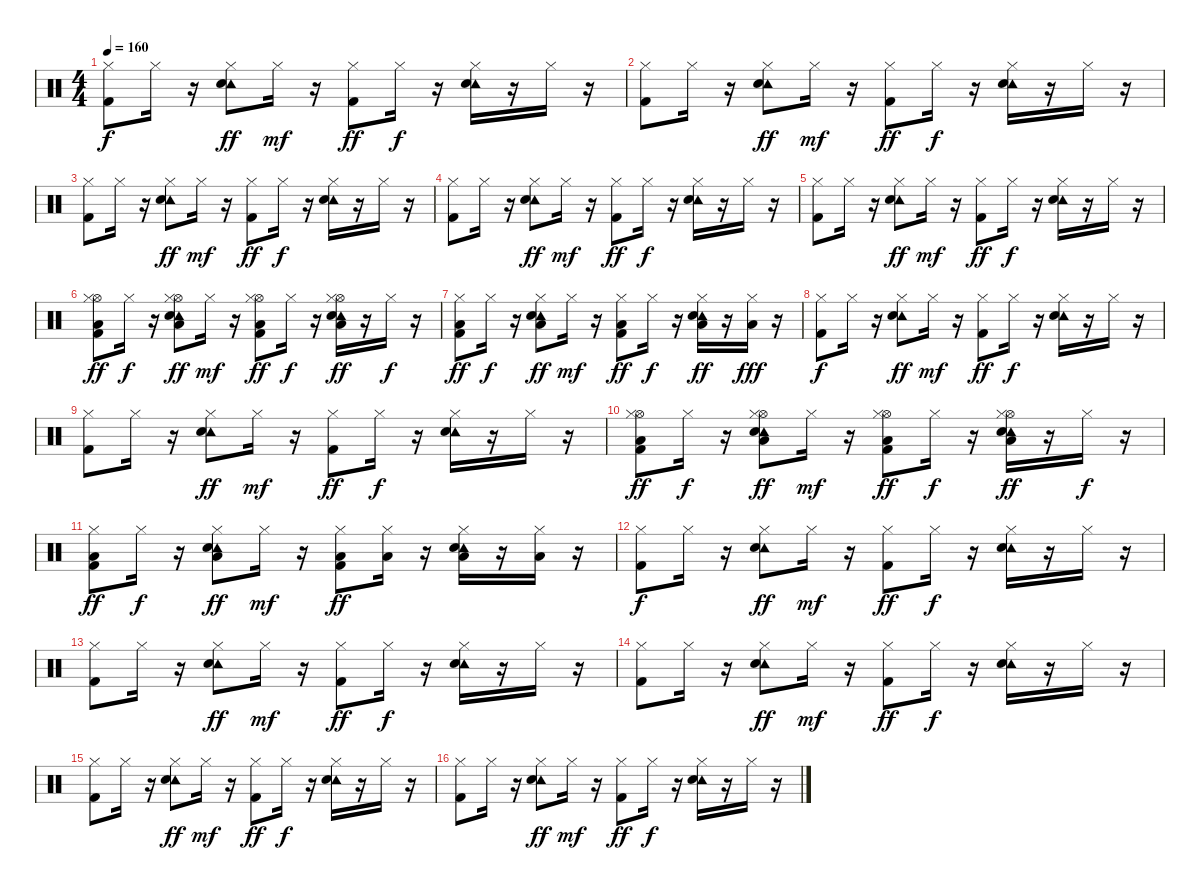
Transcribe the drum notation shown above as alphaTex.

\track "" {instrument percussion}
\staff {score}
\articulation defaults
\ts (4 4)
\tempo 160
\clef neutral
\ks c
("Hi-Hat (closed)" "Kick (hit) 2").8{dy f} "Hi-Hat (closed)".16 r.16 ("Tambourine (hit)" "Hi-Hat (closed)" "Snare (hit) 2").8{dy ff} "Hi-Hat (closed)".16{dy mf} r.16 ("Hi-Hat (closed)" "Kick (hit) 2").8{dy ff} "Hi-Hat (closed)".16{dy f} r.16 ("Tambourine (hit)" "Hi-Hat (closed)" "Snare (hit) 2").16 r.16 "Hi-Hat (closed)".16 r.16 |
("Hi-Hat (closed)" "Kick (hit) 2").8 "Hi-Hat (closed)".16 r.16 ("Tambourine (hit)" "Hi-Hat (closed)" "Snare (hit) 2").8{dy ff} "Hi-Hat (closed)".16{dy mf} r.16 ("Hi-Hat (closed)" "Kick (hit) 2").8{dy ff} "Hi-Hat (closed)".16{dy f} r.16 ("Tambourine (hit)" "Hi-Hat (closed)" "Snare (hit) 2").16 r.16 "Hi-Hat (closed)".16 r.16 |
("Hi-Hat (closed)" "Kick (hit) 2").8 "Hi-Hat (closed)".16 r.16 ("Tambourine (hit)" "Hi-Hat (closed)" "Snare (hit) 2").8{dy ff} "Hi-Hat (closed)".16{dy mf} r.16 ("Hi-Hat (closed)" "Kick (hit) 2").8{dy ff} "Hi-Hat (closed)".16{dy f} r.16 ("Tambourine (hit)" "Hi-Hat (closed)" "Snare (hit) 2").16 r.16 "Hi-Hat (closed)".16 r.16 |
("Hi-Hat (closed)" "Kick (hit) 2").8 "Hi-Hat (closed)".16 r.16 ("Tambourine (hit)" "Hi-Hat (closed)" "Snare (hit) 2").8{dy ff} "Hi-Hat (closed)".16{dy mf} r.16 ("Hi-Hat (closed)" "Kick (hit) 2").8{dy ff} "Hi-Hat (closed)".16{dy f} r.16 ("Tambourine (hit)" "Hi-Hat (closed)" "Snare (hit) 2").16 r.16 "Hi-Hat (closed)".16 r.16 |
("Hi-Hat (closed)" "Kick (hit) 2").8 "Hi-Hat (closed)".16 r.16 ("Tambourine (hit)" "Hi-Hat (closed)" "Snare (hit) 2").8{dy ff} "Hi-Hat (closed)".16{dy mf} r.16 ("Hi-Hat (closed)" "Kick (hit) 2").8{dy ff} "Hi-Hat (closed)".16{dy f} r.16 ("Tambourine (hit)" "Hi-Hat (closed)" "Snare (hit) 2").16 r.16 "Hi-Hat (closed)".16 r.16 |
("Hi-Hat (open)" "Low Floor Tom (hit)" "Hi-Hat (closed)" "Kick (hit) 2").8{dy ff} "Hi-Hat (closed)".16{dy f} r.16 ("Hi-Hat (open)" "Low Floor Tom (hit)" "Tambourine (hit)" "Hi-Hat (closed)" "Snare (hit) 2").8{dy ff} "Hi-Hat (closed)".16{dy mf} r.16 ("Hi-Hat (open)" "Low Floor Tom (hit)" "Hi-Hat (closed)" "Kick (hit) 2").8{dy ff} "Hi-Hat (closed)".16{dy f} r.16 ("Low Floor Tom (hit)" "Hi-Hat (open)" "Tambourine (hit)" "Hi-Hat (closed)" "Snare (hit) 2").16{dy ff} r.16 "Hi-Hat (closed)".16{dy f} r.16 |
("Low Floor Tom (hit)" "Hi-Hat (closed)" "Kick (hit) 2").8{dy ff} "Hi-Hat (closed)".16{dy f} r.16 ("Low Floor Tom (hit)" "Tambourine (hit)" "Hi-Hat (closed)" "Snare (hit) 2").8{dy ff} "Hi-Hat (closed)".16{dy mf} r.16 ("Low Floor Tom (hit)" "Hi-Hat (closed)" "Kick (hit) 2").8{dy ff} "Hi-Hat (closed)".16{dy f} r.16 ("Low Floor Tom (hit)" "Tambourine (hit)" "Hi-Hat (closed)" "Snare (hit) 2").16{dy ff} r.16 ("Low Floor Tom (hit)" "Hi-Hat (closed)").16{dy fff} r.16 |
("Hi-Hat (closed)" "Kick (hit) 2").8{dy f} "Hi-Hat (closed)".16 r.16 ("Tambourine (hit)" "Hi-Hat (closed)" "Snare (hit) 2").8{dy ff} "Hi-Hat (closed)".16{dy mf} r.16 ("Hi-Hat (closed)" "Kick (hit) 2").8{dy ff} "Hi-Hat (closed)".16{dy f} r.16 ("Tambourine (hit)" "Hi-Hat (closed)" "Snare (hit) 2").16 r.16 "Hi-Hat (closed)".16 r.16 |
("Hi-Hat (closed)" "Kick (hit) 2").8 "Hi-Hat (closed)".16 r.16 ("Tambourine (hit)" "Hi-Hat (closed)" "Snare (hit) 2").8{dy ff} "Hi-Hat (closed)".16{dy mf} r.16 ("Hi-Hat (closed)" "Kick (hit) 2").8{dy ff} "Hi-Hat (closed)".16{dy f} r.16 ("Tambourine (hit)" "Hi-Hat (closed)" "Snare (hit) 2").16 r.16 "Hi-Hat (closed)".16 r.16 |
("Hi-Hat (open)" "Low Floor Tom (hit)" "Hi-Hat (closed)" "Kick (hit) 2").8{dy ff} "Hi-Hat (closed)".16{dy f} r.16 ("Hi-Hat (open)" "Low Floor Tom (hit)" "Tambourine (hit)" "Hi-Hat (closed)" "Snare (hit) 2").8{dy ff} "Hi-Hat (closed)".16{dy mf} r.16 ("Low Floor Tom (hit)" "Hi-Hat (open)" "Hi-Hat (closed)" "Kick (hit) 2").8{dy ff} "Hi-Hat (closed)".16{dy f} r.16 ("Hi-Hat (open)" "Low Floor Tom (hit)" "Tambourine (hit)" "Hi-Hat (closed)" "Snare (hit) 2").16{dy ff} r.16 "Hi-Hat (closed)".16{dy f} r.16 |
("Low Floor Tom (hit)" "Hi-Hat (closed)" "Kick (hit) 2").8{dy ff} "Hi-Hat (closed)".16{dy f} r.16 ("Low Floor Tom (hit)" "Tambourine (hit)" "Hi-Hat (closed)" "Snare (hit) 2").8{dy ff} "Hi-Hat (closed)".16{dy mf} r.16 ("Low Floor Tom (hit)" "Hi-Hat (closed)" "Kick (hit) 2").8{dy ff} ("Low Floor Tom (hit)" "Hi-Hat (closed)").16 r.16 ("Low Floor Tom (hit)" "Tambourine (hit)" "Hi-Hat (closed)" "Snare (hit) 2").16 r.16 ("Low Floor Tom (hit)" "Hi-Hat (closed)").16 r.16 |
("Hi-Hat (closed)" "Kick (hit) 2").8{dy f} "Hi-Hat (closed)".16 r.16 ("Tambourine (hit)" "Hi-Hat (closed)" "Snare (hit) 2").8{dy ff} "Hi-Hat (closed)".16{dy mf} r.16 ("Hi-Hat (closed)" "Kick (hit) 2").8{dy ff} "Hi-Hat (closed)".16{dy f} r.16 ("Tambourine (hit)" "Hi-Hat (closed)" "Snare (hit) 2").16 r.16 "Hi-Hat (closed)".16 r.16 |
("Hi-Hat (closed)" "Kick (hit) 2").8 "Hi-Hat (closed)".16 r.16 ("Tambourine (hit)" "Hi-Hat (closed)" "Snare (hit) 2").8{dy ff} "Hi-Hat (closed)".16{dy mf} r.16 ("Hi-Hat (closed)" "Kick (hit) 2").8{dy ff} "Hi-Hat (closed)".16{dy f} r.16 ("Tambourine (hit)" "Hi-Hat (closed)" "Snare (hit) 2").16 r.16 "Hi-Hat (closed)".16 r.16 |
("Hi-Hat (closed)" "Kick (hit) 2").8 "Hi-Hat (closed)".16 r.16 ("Tambourine (hit)" "Hi-Hat (closed)" "Snare (hit) 2").8{dy ff} "Hi-Hat (closed)".16{dy mf} r.16 ("Hi-Hat (closed)" "Kick (hit) 2").8{dy ff} "Hi-Hat (closed)".16{dy f} r.16 ("Tambourine (hit)" "Hi-Hat (closed)" "Snare (hit) 2").16 r.16 "Hi-Hat (closed)".16 r.16 |
("Hi-Hat (closed)" "Kick (hit) 2").8 "Hi-Hat (closed)".16 r.16 ("Tambourine (hit)" "Hi-Hat (closed)" "Snare (hit) 2").8{dy ff} "Hi-Hat (closed)".16{dy mf} r.16 ("Hi-Hat (closed)" "Kick (hit) 2").8{dy ff} "Hi-Hat (closed)".16{dy f} r.16 ("Tambourine (hit)" "Hi-Hat (closed)" "Snare (hit) 2").16 r.16 "Hi-Hat (closed)".16 r.16 |
("Hi-Hat (closed)" "Kick (hit) 2").8 "Hi-Hat (closed)".16 r.16 ("Tambourine (hit)" "Hi-Hat (closed)" "Snare (hit) 2").8{dy ff} "Hi-Hat (closed)".16{dy mf} r.16 ("Hi-Hat (closed)" "Kick (hit) 2").8{dy ff} "Hi-Hat (closed)".16{dy f} r.16 ("Tambourine (hit)" "Hi-Hat (closed)" "Snare (hit) 2").16 r.16 "Hi-Hat (closed)".16 r.16
